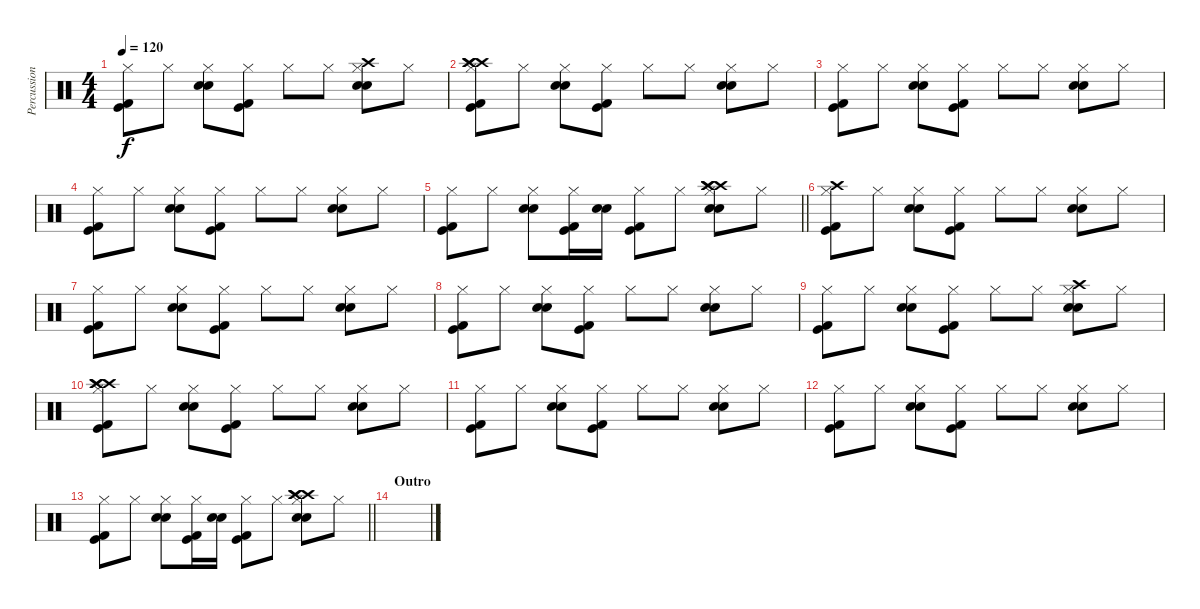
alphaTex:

\track ("Percussions" "Percussion") {instrument percussion}
\staff {score}
\articulation defaults
\ts (4 4)
\tempo 120
\clef neutral
\ks c
("Hi-Hat (closed)" "Kick (hit)" "Kick (hit) 2").8{dy f} "Hi-Hat (closed)".8 ("Hi-Hat (closed)" "Electric Snare (hit)" "Electric Snare (hit)").8 ("Hi-Hat (closed)" "Kick (hit)" "Kick (hit) 2").8 "Hi-Hat (closed)".8 "Hi-Hat (closed)".8 ("Hi-Hat (closed)" "Electric Snare (hit)" "Electric Snare (hit)" "Crash high (hit)").8 "Hi-Hat (closed)".8 |
("Crash high (hit)" "Hi-Hat (closed)" "Crash high (hit)" "Kick (hit)" "Kick (hit) 2" "Crash high (hit)").8 "Hi-Hat (closed)".8 ("Hi-Hat (closed)" "Electric Snare (hit)" "Electric Snare (hit)").8 ("Hi-Hat (closed)" "Kick (hit)" "Kick (hit) 2").8 "Hi-Hat (closed)".8 "Hi-Hat (closed)".8 ("Hi-Hat (closed)" "Electric Snare (hit)" "Electric Snare (hit)").8 "Hi-Hat (closed)".8 |
("Hi-Hat (closed)" "Kick (hit)" "Kick (hit) 2").8 "Hi-Hat (closed)".8 ("Hi-Hat (closed)" "Electric Snare (hit)" "Electric Snare (hit)").8 ("Hi-Hat (closed)" "Kick (hit)" "Kick (hit) 2").8 "Hi-Hat (closed)".8 "Hi-Hat (closed)".8 ("Hi-Hat (closed)" "Electric Snare (hit)" "Electric Snare (hit)").8 "Hi-Hat (closed)".8 |
("Hi-Hat (closed)" "Kick (hit)" "Kick (hit) 2").8 "Hi-Hat (closed)".8 ("Hi-Hat (closed)" "Electric Snare (hit)" "Electric Snare (hit)").8 ("Hi-Hat (closed)" "Kick (hit)" "Kick (hit) 2").8 "Hi-Hat (closed)".8 "Hi-Hat (closed)".8 ("Hi-Hat (closed)" "Electric Snare (hit)" "Electric Snare (hit)").8 "Hi-Hat (closed)".8 |
\barLineRight lightlight
("Hi-Hat (closed)" "Kick (hit)" "Kick (hit) 2").8 "Hi-Hat (closed)".8 ("Hi-Hat (closed)" "Electric Snare (hit)" "Electric Snare (hit)").8 ("Hi-Hat (closed)" "Kick (hit)" "Kick (hit) 2").16 ("Electric Snare (hit)" "Electric Snare (hit)").16 ("Hi-Hat (closed)" "Kick (hit)" "Kick (hit) 2").8 "Hi-Hat (closed)".8 ("Crash high (hit)" "Hi-Hat (closed)" "Electric Snare (hit)" "Electric Snare (hit)" "Crash high (hit)" "Crash high (hit)").8 "Hi-Hat (closed)".8 |
("Crash high (hit)" "Hi-Hat (closed)" "Kick (hit)" "Kick (hit) 2").8 "Hi-Hat (closed)".8 ("Hi-Hat (closed)" "Electric Snare (hit)" "Electric Snare (hit)").8 ("Hi-Hat (closed)" "Kick (hit)" "Kick (hit) 2").8 "Hi-Hat (closed)".8 "Hi-Hat (closed)".8 ("Hi-Hat (closed)" "Electric Snare (hit)" "Electric Snare (hit)").8 "Hi-Hat (closed)".8 |
("Hi-Hat (closed)" "Kick (hit)" "Kick (hit) 2").8 "Hi-Hat (closed)".8 ("Hi-Hat (closed)" "Electric Snare (hit)" "Electric Snare (hit)").8 ("Hi-Hat (closed)" "Kick (hit)" "Kick (hit) 2").8 "Hi-Hat (closed)".8 "Hi-Hat (closed)".8 ("Hi-Hat (closed)" "Electric Snare (hit)" "Electric Snare (hit)").8 "Hi-Hat (closed)".8 |
("Hi-Hat (closed)" "Kick (hit)" "Kick (hit) 2").8 "Hi-Hat (closed)".8 ("Hi-Hat (closed)" "Electric Snare (hit)" "Electric Snare (hit)").8 ("Hi-Hat (closed)" "Kick (hit)" "Kick (hit) 2").8 "Hi-Hat (closed)".8 "Hi-Hat (closed)".8 ("Hi-Hat (closed)" "Electric Snare (hit)" "Electric Snare (hit)").8 "Hi-Hat (closed)".8 |
("Hi-Hat (closed)" "Kick (hit)" "Kick (hit) 2").8 "Hi-Hat (closed)".8 ("Hi-Hat (closed)" "Electric Snare (hit)" "Electric Snare (hit)").8 ("Hi-Hat (closed)" "Kick (hit)" "Kick (hit) 2").8 "Hi-Hat (closed)".8 "Hi-Hat (closed)".8 ("Hi-Hat (closed)" "Electric Snare (hit)" "Electric Snare (hit)" "Crash high (hit)").8 "Hi-Hat (closed)".8 |
("Crash high (hit)" "Hi-Hat (closed)" "Crash high (hit)" "Kick (hit)" "Kick (hit) 2" "Crash high (hit)").8 "Hi-Hat (closed)".8 ("Hi-Hat (closed)" "Electric Snare (hit)" "Electric Snare (hit)").8 ("Hi-Hat (closed)" "Kick (hit)" "Kick (hit) 2").8 "Hi-Hat (closed)".8 "Hi-Hat (closed)".8 ("Hi-Hat (closed)" "Electric Snare (hit)" "Electric Snare (hit)").8 "Hi-Hat (closed)".8 |
("Hi-Hat (closed)" "Kick (hit)" "Kick (hit) 2").8 "Hi-Hat (closed)".8 ("Hi-Hat (closed)" "Electric Snare (hit)" "Electric Snare (hit)").8 ("Hi-Hat (closed)" "Kick (hit)" "Kick (hit) 2").8 "Hi-Hat (closed)".8 "Hi-Hat (closed)".8 ("Hi-Hat (closed)" "Electric Snare (hit)" "Electric Snare (hit)").8 "Hi-Hat (closed)".8 |
("Hi-Hat (closed)" "Kick (hit)" "Kick (hit) 2").8 "Hi-Hat (closed)".8 ("Hi-Hat (closed)" "Electric Snare (hit)" "Electric Snare (hit)").8 ("Hi-Hat (closed)" "Kick (hit)" "Kick (hit) 2").8 "Hi-Hat (closed)".8 "Hi-Hat (closed)".8 ("Hi-Hat (closed)" "Electric Snare (hit)" "Electric Snare (hit)").8 "Hi-Hat (closed)".8 |
\barLineRight lightlight
("Hi-Hat (closed)" "Kick (hit)" "Kick (hit) 2").8 "Hi-Hat (closed)".8 ("Hi-Hat (closed)" "Electric Snare (hit)" "Electric Snare (hit)").8 ("Hi-Hat (closed)" "Kick (hit)" "Kick (hit) 2").16 ("Electric Snare (hit)" "Electric Snare (hit)").16 ("Hi-Hat (closed)" "Kick (hit)" "Kick (hit) 2").8 "Hi-Hat (closed)".8 ("Crash high (hit)" "Hi-Hat (closed)" "Electric Snare (hit)" "Electric Snare (hit)" "Crash high (hit)" "Crash high (hit)").8 "Hi-Hat (closed)".8 |
\section ("" "Outro")
